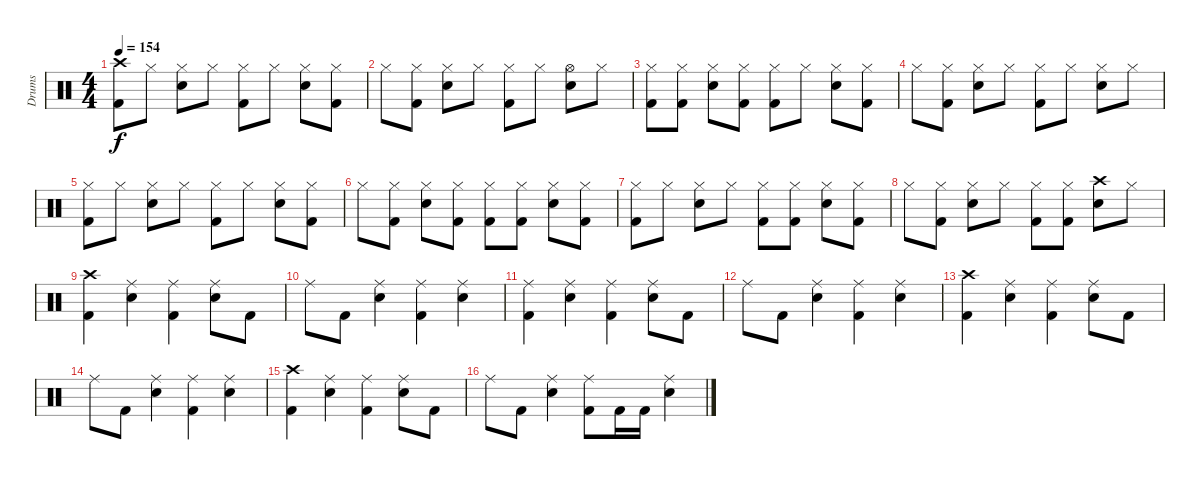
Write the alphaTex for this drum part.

\track ("Drums" "Drums") {instrument percussion}
\staff {score}
\articulation defaults
\ts (4 4)
\tempo 154
\clef neutral
\ks c
("Crash high (hit)" "Kick (hit) 2").8{dy f} "Hi-Hat (closed)".8 ("Hi-Hat (closed)" "Snare (hit) 2").8 "Hi-Hat (closed)".8 ("Hi-Hat (closed)" "Kick (hit) 2").8 "Hi-Hat (closed)".8 ("Hi-Hat (closed)" "Snare (hit) 2").8 ("Hi-Hat (closed)" "Kick (hit) 2").8 |
"Hi-Hat (closed)".8 ("Hi-Hat (closed)" "Kick (hit) 2").8 ("Hi-Hat (closed)" "Snare (hit) 2").8 "Hi-Hat (closed)".8 ("Hi-Hat (closed)" "Kick (hit) 2").8 "Hi-Hat (closed)".8 ("Hi-Hat (open)" "Snare (hit) 2").8 "Hi-Hat (closed)".8 |
("Hi-Hat (closed)" "Kick (hit) 2").8 ("Hi-Hat (closed)" "Kick (hit) 2").8 ("Hi-Hat (closed)" "Snare (hit) 2").8 ("Hi-Hat (closed)" "Kick (hit) 2").8 ("Hi-Hat (closed)" "Kick (hit) 2").8 "Hi-Hat (closed)".8 ("Hi-Hat (closed)" "Snare (hit) 2").8 ("Hi-Hat (closed)" "Kick (hit) 2").8 |
"Hi-Hat (closed)".8 ("Hi-Hat (closed)" "Kick (hit) 2").8 ("Hi-Hat (closed)" "Snare (hit) 2").8 "Hi-Hat (closed)".8 ("Hi-Hat (closed)" "Kick (hit) 2").8 "Hi-Hat (closed)".8 ("Hi-Hat (closed)" "Snare (hit) 2").8 "Hi-Hat (closed)".8 |
("Hi-Hat (closed)" "Kick (hit) 2").8 "Hi-Hat (closed)".8 ("Hi-Hat (closed)" "Snare (hit) 2").8 "Hi-Hat (closed)".8 ("Hi-Hat (closed)" "Kick (hit) 2").8 "Hi-Hat (closed)".8 ("Hi-Hat (closed)" "Snare (hit) 2").8 ("Hi-Hat (closed)" "Kick (hit) 2").8 |
"Hi-Hat (closed)".8 ("Hi-Hat (closed)" "Kick (hit) 2").8 ("Hi-Hat (closed)" "Snare (hit) 2").8 ("Hi-Hat (closed)" "Kick (hit) 2").8 ("Hi-Hat (closed)" "Kick (hit) 2").8 ("Hi-Hat (closed)" "Kick (hit) 2").8 ("Hi-Hat (closed)" "Snare (hit) 2").8 ("Hi-Hat (closed)" "Kick (hit) 2").8 |
("Hi-Hat (closed)" "Kick (hit) 2").8 "Hi-Hat (closed)".8 ("Hi-Hat (closed)" "Snare (hit) 2").8 "Hi-Hat (closed)".8 ("Hi-Hat (closed)" "Kick (hit) 2").8 ("Hi-Hat (closed)" "Kick (hit) 2").8 ("Hi-Hat (closed)" "Snare (hit) 2").8 ("Hi-Hat (closed)" "Kick (hit) 2").8 |
"Hi-Hat (closed)".8 ("Hi-Hat (closed)" "Kick (hit) 2").8 ("Hi-Hat (closed)" "Snare (hit) 2").8 "Hi-Hat (closed)".8 ("Hi-Hat (closed)" "Kick (hit) 2").8 ("Hi-Hat (closed)" "Kick (hit) 2").8 ("Crash high (hit)" "Snare (hit) 2").8 "Hi-Hat (closed)".8 |
("Crash high (hit)" "Kick (hit) 2").4 ("Ride (middle)" "Snare (hit) 2").4 ("Ride (middle)" "Kick (hit) 2").4 ("Ride (middle)" "Snare (hit) 2").8 "Kick (hit) 2".8 |
"Ride (middle)".8 "Kick (hit) 2".8 ("Ride (middle)" "Snare (hit) 2").4 ("Ride (middle)" "Kick (hit) 2").4 ("Ride (middle)" "Snare (hit) 2").4 |
("Ride (middle)" "Kick (hit) 2").4 ("Ride (middle)" "Snare (hit) 2").4 ("Ride (middle)" "Kick (hit) 2").4 ("Ride (middle)" "Snare (hit) 2").8 "Kick (hit) 2".8 |
"Ride (middle)".8 "Kick (hit) 2".8 ("Ride (middle)" "Snare (hit) 2").4 ("Ride (middle)" "Kick (hit) 2").4 ("Ride (middle)" "Snare (hit) 2").4 |
("Crash high (hit)" "Kick (hit) 2").4 ("Ride (middle)" "Snare (hit) 2").4 ("Ride (middle)" "Kick (hit) 2").4 ("Ride (middle)" "Snare (hit) 2").8 "Kick (hit) 2".8 |
"Ride (middle)".8 "Kick (hit) 2".8 ("Ride (middle)" "Snare (hit) 2").4 ("Ride (middle)" "Kick (hit) 2").4 ("Ride (middle)" "Snare (hit) 2").4 |
("Crash high (hit)" "Kick (hit) 2").4 ("Ride (middle)" "Snare (hit) 2").4 ("Ride (middle)" "Kick (hit) 2").4 ("Ride (middle)" "Snare (hit) 2").8 "Kick (hit) 2".8 |
"Ride (middle)".8 "Kick (hit) 2".8 ("Ride (middle)" "Snare (hit) 2").4 ("Ride (middle)" "Kick (hit) 2").8 "Kick (hit) 2".16 "Kick (hit) 2".16 ("Ride (middle)" "Snare (hit) 2").4
